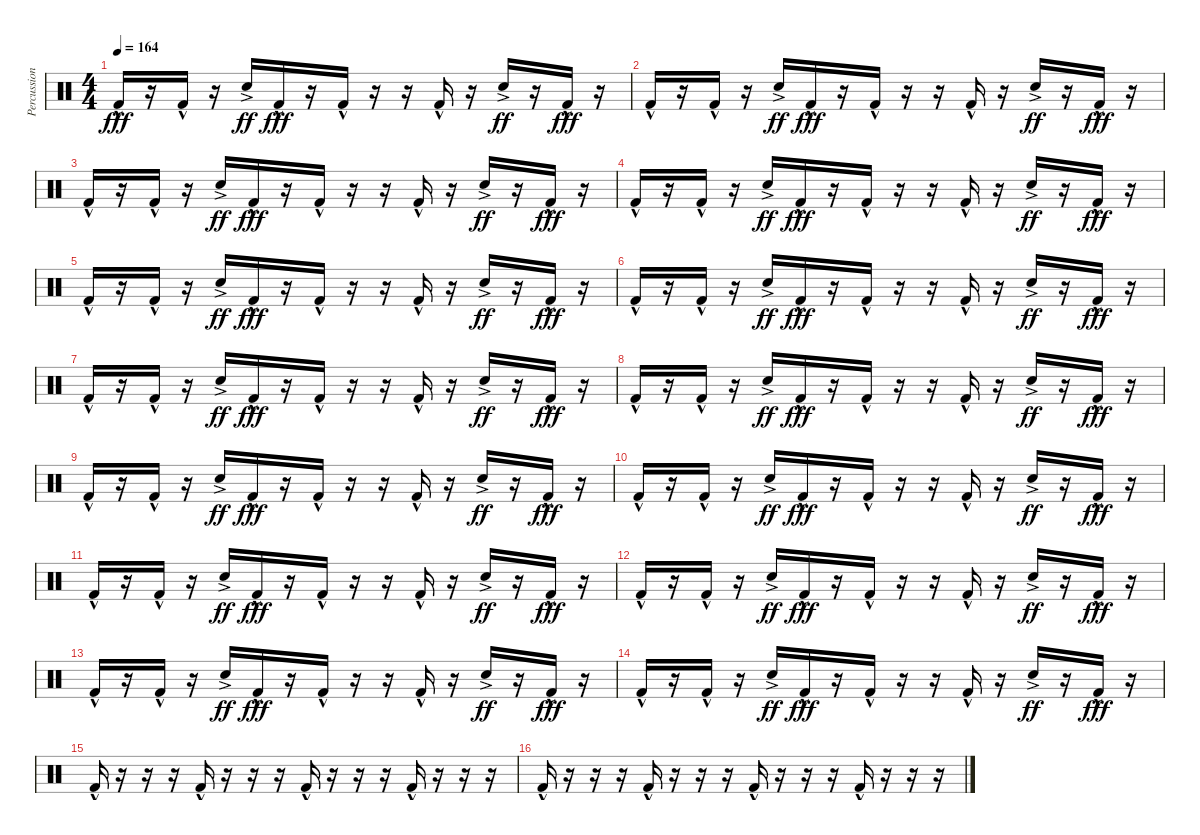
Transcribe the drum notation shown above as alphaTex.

\track ("Percussion" "Percussion") {instrument percussion}
\staff {score}
\articulation defaults
\ts (4 4)
\tempo 164
\clef neutral
\ks c "Kick (hit) 2"{hac}.16{dy fff}
r.16 "Kick (hit) 2"{hac}.16 r.16 "Snare (hit) 2"{ac}.16{dy ff} "Kick (hit) 2"{hac}.16{dy fff} r.16 "Kick (hit) 2"{hac}.16 r.16 r.16 "Kick (hit) 2"{hac}.16 r.16 "Snare (hit) 2"{ac}.16{dy ff} r.16 "Kick (hit) 2"{hac}.16{dy fff} r.16 |
"Kick (hit) 2"{hac}.16 r.16 "Kick (hit) 2"{hac}.16 r.16 "Snare (hit) 2"{ac}.16{dy ff} "Kick (hit) 2"{hac}.16{dy fff} r.16 "Kick (hit) 2"{hac}.16 r.16 r.16 "Kick (hit) 2"{hac}.16 r.16 "Snare (hit) 2"{ac}.16{dy ff} r.16 "Kick (hit) 2"{hac}.16{dy fff} r.16 |
"Kick (hit) 2"{hac}.16 r.16 "Kick (hit) 2"{hac}.16 r.16 "Snare (hit) 2"{ac}.16{dy ff} "Kick (hit) 2"{hac}.16{dy fff} r.16 "Kick (hit) 2"{hac}.16 r.16 r.16 "Kick (hit) 2"{hac}.16 r.16 "Snare (hit) 2"{ac}.16{dy ff} r.16 "Kick (hit) 2"{hac}.16{dy fff} r.16 |
"Kick (hit) 2"{hac}.16 r.16 "Kick (hit) 2"{hac}.16 r.16 "Snare (hit) 2"{ac}.16{dy ff} "Kick (hit) 2"{hac}.16{dy fff} r.16 "Kick (hit) 2"{hac}.16 r.16 r.16 "Kick (hit) 2"{hac}.16 r.16 "Snare (hit) 2"{ac}.16{dy ff} r.16 "Kick (hit) 2"{hac}.16{dy fff} r.16 |
"Kick (hit) 2"{hac}.16 r.16 "Kick (hit) 2"{hac}.16 r.16 "Snare (hit) 2"{ac}.16{dy ff} "Kick (hit) 2"{hac}.16{dy fff} r.16 "Kick (hit) 2"{hac}.16 r.16 r.16 "Kick (hit) 2"{hac}.16 r.16 "Snare (hit) 2"{ac}.16{dy ff} r.16 "Kick (hit) 2"{hac}.16{dy fff} r.16 |
"Kick (hit) 2"{hac}.16 r.16 "Kick (hit) 2"{hac}.16 r.16 "Snare (hit) 2"{ac}.16{dy ff} "Kick (hit) 2"{hac}.16{dy fff} r.16 "Kick (hit) 2"{hac}.16 r.16 r.16 "Kick (hit) 2"{hac}.16 r.16 "Snare (hit) 2"{ac}.16{dy ff} r.16 "Kick (hit) 2"{hac}.16{dy fff} r.16 |
"Kick (hit) 2"{hac}.16 r.16 "Kick (hit) 2"{hac}.16 r.16 "Snare (hit) 2"{ac}.16{dy ff} "Kick (hit) 2"{hac}.16{dy fff} r.16 "Kick (hit) 2"{hac}.16 r.16 r.16 "Kick (hit) 2"{hac}.16 r.16 "Snare (hit) 2"{ac}.16{dy ff} r.16 "Kick (hit) 2"{hac}.16{dy fff} r.16 |
"Kick (hit) 2"{hac}.16 r.16 "Kick (hit) 2"{hac}.16 r.16 "Snare (hit) 2"{ac}.16{dy ff} "Kick (hit) 2"{hac}.16{dy fff} r.16 "Kick (hit) 2"{hac}.16 r.16 r.16 "Kick (hit) 2"{hac}.16 r.16 "Snare (hit) 2"{ac}.16{dy ff} r.16 "Kick (hit) 2"{hac}.16{dy fff} r.16 |
"Kick (hit) 2"{hac}.16 r.16 "Kick (hit) 2"{hac}.16 r.16 "Snare (hit) 2"{ac}.16{dy ff} "Kick (hit) 2"{hac}.16{dy fff} r.16 "Kick (hit) 2"{hac}.16 r.16 r.16 "Kick (hit) 2"{hac}.16 r.16 "Snare (hit) 2"{ac}.16{dy ff} r.16 "Kick (hit) 2"{hac}.16{dy fff} r.16 |
"Kick (hit) 2"{hac}.16 r.16 "Kick (hit) 2"{hac}.16 r.16 "Snare (hit) 2"{ac}.16{dy ff} "Kick (hit) 2"{hac}.16{dy fff} r.16 "Kick (hit) 2"{hac}.16 r.16 r.16 "Kick (hit) 2"{hac}.16 r.16 "Snare (hit) 2"{ac}.16{dy ff} r.16 "Kick (hit) 2"{hac}.16{dy fff} r.16 |
"Kick (hit) 2"{hac}.16 r.16 "Kick (hit) 2"{hac}.16 r.16 "Snare (hit) 2"{ac}.16{dy ff} "Kick (hit) 2"{hac}.16{dy fff} r.16 "Kick (hit) 2"{hac}.16 r.16 r.16 "Kick (hit) 2"{hac}.16 r.16 "Snare (hit) 2"{ac}.16{dy ff} r.16 "Kick (hit) 2"{hac}.16{dy fff} r.16 |
"Kick (hit) 2"{hac}.16 r.16 "Kick (hit) 2"{hac}.16 r.16 "Snare (hit) 2"{ac}.16{dy ff} "Kick (hit) 2"{hac}.16{dy fff} r.16 "Kick (hit) 2"{hac}.16 r.16 r.16 "Kick (hit) 2"{hac}.16 r.16 "Snare (hit) 2"{ac}.16{dy ff} r.16 "Kick (hit) 2"{hac}.16{dy fff} r.16 |
"Kick (hit) 2"{hac}.16 r.16 "Kick (hit) 2"{hac}.16 r.16 "Snare (hit) 2"{ac}.16{dy ff} "Kick (hit) 2"{hac}.16{dy fff} r.16 "Kick (hit) 2"{hac}.16 r.16 r.16 "Kick (hit) 2"{hac}.16 r.16 "Snare (hit) 2"{ac}.16{dy ff} r.16 "Kick (hit) 2"{hac}.16{dy fff} r.16 |
"Kick (hit) 2"{hac}.16 r.16 "Kick (hit) 2"{hac}.16 r.16 "Snare (hit) 2"{ac}.16{dy ff} "Kick (hit) 2"{hac}.16{dy fff} r.16 "Kick (hit) 2"{hac}.16 r.16 r.16 "Kick (hit) 2"{hac}.16 r.16 "Snare (hit) 2"{ac}.16{dy ff} r.16 "Kick (hit) 2"{hac}.16{dy fff} r.16 |
"Kick (hit) 2"{hac}.16 r.16 r.16 r.16 "Kick (hit) 2"{hac}.16 r.16 r.16 r.16 "Kick (hit) 2"{hac}.16 r.16 r.16 r.16 "Kick (hit) 2"{hac}.16 r.16 r.16 r.16 |
"Kick (hit) 2"{hac}.16 r.16 r.16 r.16 "Kick (hit) 2"{hac}.16 r.16 r.16 r.16 "Kick (hit) 2"{hac}.16 r.16 r.16 r.16 "Kick (hit) 2"{hac}.16 r.16 r.16 r.16
